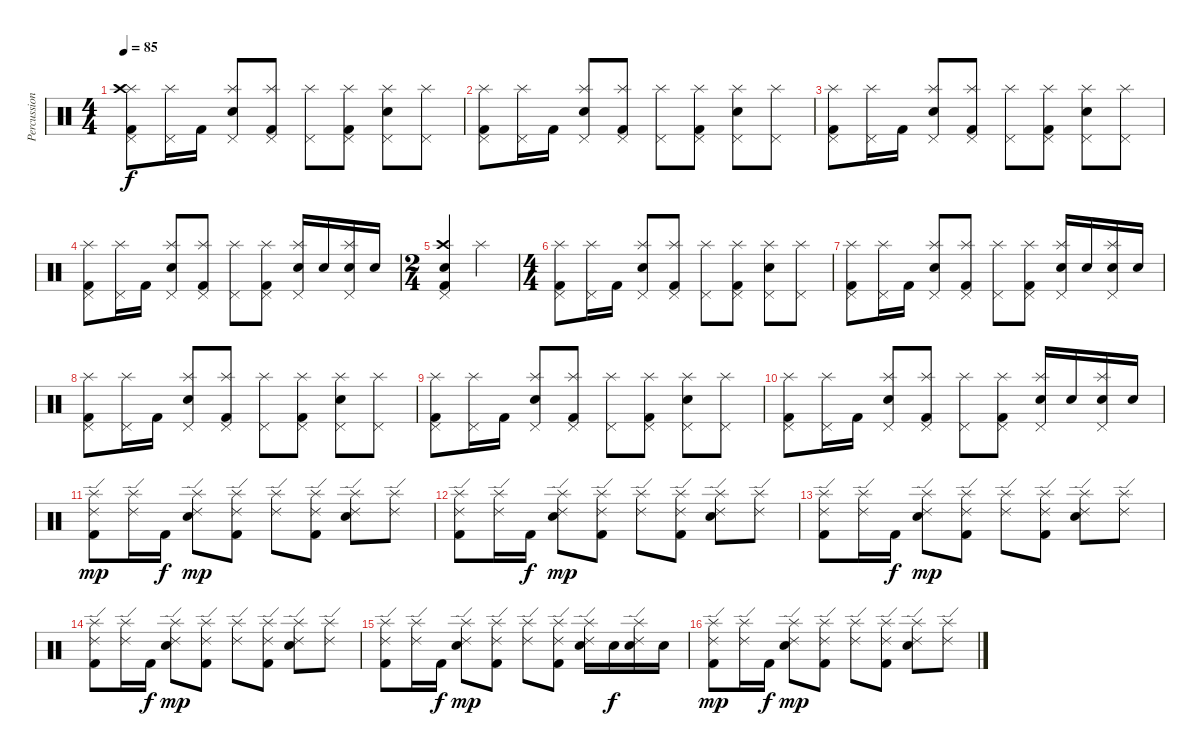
\track ("Percussion" "Percussion") {instrument percussion}
\staff {score}
\articulation defaults
\ts (4 4)
\tempo 85
\clef neutral
\ks c
("Pedal Hi-Hat (hit)" "Splash (hit)" "Crash high (hit)" "Kick (hit) 2").8{dy f} ("Pedal Hi-Hat (hit)" "Splash (hit)").16 "Kick (hit) 2".16 ("Pedal Hi-Hat (hit)" "Splash (hit)" "Electric Snare (hit)").8 ("Pedal Hi-Hat (hit)" "Splash (hit)" "Kick (hit) 2").8 ("Pedal Hi-Hat (hit)" "Splash (hit)").8 ("Pedal Hi-Hat (hit)" "Splash (hit)" "Kick (hit) 2").8 ("Pedal Hi-Hat (hit)" "Splash (hit)" "Electric Snare (hit)").8 ("Pedal Hi-Hat (hit)" "Splash (hit)").8 |
("Pedal Hi-Hat (hit)" "Splash (hit)" "Kick (hit) 2").8 ("Pedal Hi-Hat (hit)" "Splash (hit)").16 "Kick (hit) 2".16 ("Pedal Hi-Hat (hit)" "Splash (hit)" "Electric Snare (hit)").8 ("Pedal Hi-Hat (hit)" "Splash (hit)" "Kick (hit) 2").8 ("Pedal Hi-Hat (hit)" "Splash (hit)").8 ("Pedal Hi-Hat (hit)" "Splash (hit)" "Kick (hit) 2").8 ("Pedal Hi-Hat (hit)" "Splash (hit)" "Electric Snare (hit)").8 ("Pedal Hi-Hat (hit)" "Splash (hit)").8 |
("Pedal Hi-Hat (hit)" "Splash (hit)" "Kick (hit) 2").8 ("Pedal Hi-Hat (hit)" "Splash (hit)").16 "Kick (hit) 2".16 ("Pedal Hi-Hat (hit)" "Splash (hit)" "Electric Snare (hit)").8 ("Pedal Hi-Hat (hit)" "Splash (hit)" "Kick (hit) 2").8 ("Pedal Hi-Hat (hit)" "Splash (hit)").8 ("Pedal Hi-Hat (hit)" "Splash (hit)" "Kick (hit) 2").8 ("Pedal Hi-Hat (hit)" "Splash (hit)" "Electric Snare (hit)").8 ("Pedal Hi-Hat (hit)" "Splash (hit)").8 |
("Pedal Hi-Hat (hit)" "Splash (hit)" "Kick (hit) 2").8 ("Pedal Hi-Hat (hit)" "Splash (hit)").16 "Kick (hit) 2".16 ("Pedal Hi-Hat (hit)" "Splash (hit)" "Electric Snare (hit)").8 ("Pedal Hi-Hat (hit)" "Splash (hit)" "Kick (hit) 2").8 ("Pedal Hi-Hat (hit)" "Splash (hit)").8 ("Pedal Hi-Hat (hit)" "Splash (hit)" "Kick (hit) 2").8 ("Pedal Hi-Hat (hit)" "Splash (hit)" "Electric Snare (hit)").16 "Electric Snare (hit)".16 ("Pedal Hi-Hat (hit)" "Splash (hit)" "Electric Snare (hit)").16 "Electric Snare (hit)".16 |
\ts (2 4)
("Pedal Hi-Hat (hit)" "Crash high (hit)" "Electric Snare (hit)" "Kick (hit) 2").4 "Splash (hit)".4 |
\ts (4 4)
("Pedal Hi-Hat (hit)" "Splash (hit)" "Kick (hit) 2").8 ("Pedal Hi-Hat (hit)" "Splash (hit)").16 "Kick (hit) 2".16 ("Pedal Hi-Hat (hit)" "Splash (hit)" "Electric Snare (hit)").8 ("Pedal Hi-Hat (hit)" "Splash (hit)" "Kick (hit) 2").8 ("Pedal Hi-Hat (hit)" "Splash (hit)").8 ("Pedal Hi-Hat (hit)" "Splash (hit)" "Kick (hit) 2").8 ("Pedal Hi-Hat (hit)" "Splash (hit)" "Electric Snare (hit)").8 ("Pedal Hi-Hat (hit)" "Splash (hit)").8 |
("Pedal Hi-Hat (hit)" "Splash (hit)" "Kick (hit) 2").8 ("Pedal Hi-Hat (hit)" "Splash (hit)").16 "Kick (hit) 2".16 ("Pedal Hi-Hat (hit)" "Splash (hit)" "Electric Snare (hit)").8 ("Pedal Hi-Hat (hit)" "Splash (hit)" "Kick (hit) 2").8 ("Pedal Hi-Hat (hit)" "Splash (hit)").8 ("Pedal Hi-Hat (hit)" "Splash (hit)" "Kick (hit) 2").8 ("Pedal Hi-Hat (hit)" "Splash (hit)" "Electric Snare (hit)").16 "Electric Snare (hit)".16 ("Pedal Hi-Hat (hit)" "Splash (hit)" "Electric Snare (hit)").16 "Electric Snare (hit)".16 |
("Pedal Hi-Hat (hit)" "Splash (hit)" "Kick (hit) 2").8 ("Pedal Hi-Hat (hit)" "Splash (hit)").16 "Kick (hit) 2".16 ("Pedal Hi-Hat (hit)" "Splash (hit)" "Electric Snare (hit)").8 ("Pedal Hi-Hat (hit)" "Splash (hit)" "Kick (hit) 2").8 ("Pedal Hi-Hat (hit)" "Splash (hit)").8 ("Pedal Hi-Hat (hit)" "Splash (hit)" "Kick (hit) 2").8 ("Pedal Hi-Hat (hit)" "Splash (hit)" "Electric Snare (hit)").8 ("Pedal Hi-Hat (hit)" "Splash (hit)").8 |
("Pedal Hi-Hat (hit)" "Splash (hit)" "Kick (hit) 2").8 ("Pedal Hi-Hat (hit)" "Splash (hit)").16 "Kick (hit) 2".16 ("Pedal Hi-Hat (hit)" "Splash (hit)" "Electric Snare (hit)").8 ("Pedal Hi-Hat (hit)" "Splash (hit)" "Kick (hit) 2").8 ("Pedal Hi-Hat (hit)" "Splash (hit)").8 ("Pedal Hi-Hat (hit)" "Splash (hit)" "Kick (hit) 2").8 ("Pedal Hi-Hat (hit)" "Splash (hit)" "Electric Snare (hit)").8 ("Pedal Hi-Hat (hit)" "Splash (hit)").8 |
("Pedal Hi-Hat (hit)" "Splash (hit)" "Kick (hit) 2").8 ("Pedal Hi-Hat (hit)" "Splash (hit)").16 "Kick (hit) 2".16 ("Pedal Hi-Hat (hit)" "Splash (hit)" "Electric Snare (hit)").8 ("Pedal Hi-Hat (hit)" "Splash (hit)" "Kick (hit) 2").8 ("Pedal Hi-Hat (hit)" "Splash (hit)").8 ("Pedal Hi-Hat (hit)" "Splash (hit)" "Kick (hit) 2").8 ("Pedal Hi-Hat (hit)" "Splash (hit)" "Electric Snare (hit)").16 "Electric Snare (hit)".16 ("Pedal Hi-Hat (hit)" "Splash (hit)" "Electric Snare (hit)").16 "Electric Snare (hit)".16 |
("Splash (hit)" "Ride (edge) 2" "Kick (hit) 2").8{dy mp} ("Splash (hit)" "Ride (edge) 2").16 "Kick (hit) 2".16{dy f} ("Splash (hit)" "Ride (edge) 2" "Electric Snare (hit)").8{dy mp} ("Splash (hit)" "Ride (edge) 2" "Kick (hit) 2").8 ("Splash (hit)" "Ride (edge) 2").8 ("Splash (hit)" "Ride (edge) 2" "Kick (hit) 2").8 ("Splash (hit)" "Ride (edge) 2" "Electric Snare (hit)").8 ("Splash (hit)" "Ride (edge) 2").8 |
("Splash (hit)" "Ride (edge) 2" "Kick (hit) 2").8 ("Splash (hit)" "Ride (edge) 2").16 "Kick (hit) 2".16{dy f} ("Splash (hit)" "Ride (edge) 2" "Electric Snare (hit)").8{dy mp} ("Splash (hit)" "Ride (edge) 2" "Kick (hit) 2").8 ("Splash (hit)" "Ride (edge) 2").8 ("Splash (hit)" "Ride (edge) 2" "Kick (hit) 2").8 ("Splash (hit)" "Ride (edge) 2" "Electric Snare (hit)").8 ("Splash (hit)" "Ride (edge) 2").8 |
("Splash (hit)" "Ride (edge) 2" "Kick (hit) 2").8 ("Splash (hit)" "Ride (edge) 2").16 "Kick (hit) 2".16{dy f} ("Splash (hit)" "Ride (edge) 2" "Electric Snare (hit)").8{dy mp} ("Splash (hit)" "Ride (edge) 2" "Kick (hit) 2").8 ("Splash (hit)" "Ride (edge) 2").8 ("Splash (hit)" "Ride (edge) 2" "Kick (hit) 2").8 ("Splash (hit)" "Ride (edge) 2" "Electric Snare (hit)").8 ("Splash (hit)" "Ride (edge) 2").8 |
("Splash (hit)" "Ride (edge) 2" "Kick (hit) 2").8 ("Splash (hit)" "Ride (edge) 2").16 "Kick (hit) 2".16{dy f} ("Splash (hit)" "Ride (edge) 2" "Electric Snare (hit)").8{dy mp} ("Splash (hit)" "Ride (edge) 2" "Kick (hit) 2").8 ("Splash (hit)" "Ride (edge) 2").8 ("Splash (hit)" "Ride (edge) 2" "Kick (hit) 2").8 ("Splash (hit)" "Ride (edge) 2" "Electric Snare (hit)").8 ("Splash (hit)" "Ride (edge) 2").8 |
("Splash (hit)" "Ride (edge) 2" "Kick (hit) 2").8 ("Splash (hit)" "Ride (edge) 2").16 "Kick (hit) 2".16{dy f} ("Splash (hit)" "Ride (edge) 2" "Electric Snare (hit)").8{dy mp} ("Splash (hit)" "Ride (edge) 2" "Kick (hit) 2").8 ("Splash (hit)" "Ride (edge) 2").8 ("Splash (hit)" "Ride (edge) 2" "Kick (hit) 2").8 ("Splash (hit)" "Ride (edge) 2" "Electric Snare (hit)").16 "Electric Snare (hit)".16{dy f} ("Splash (hit)" "Ride (edge) 2" "Electric Snare (hit)").16 "Electric Snare (hit)".16 |
("Splash (hit)" "Ride (edge) 2" "Kick (hit) 2").8{dy mp} ("Splash (hit)" "Ride (edge) 2").16 "Kick (hit) 2".16{dy f} ("Splash (hit)" "Ride (edge) 2" "Electric Snare (hit)").8{dy mp} ("Splash (hit)" "Ride (edge) 2" "Kick (hit) 2").8 ("Splash (hit)" "Ride (edge) 2").8 ("Splash (hit)" "Ride (edge) 2" "Kick (hit) 2").8 ("Splash (hit)" "Ride (edge) 2" "Electric Snare (hit)").8 ("Splash (hit)" "Ride (edge) 2").8
